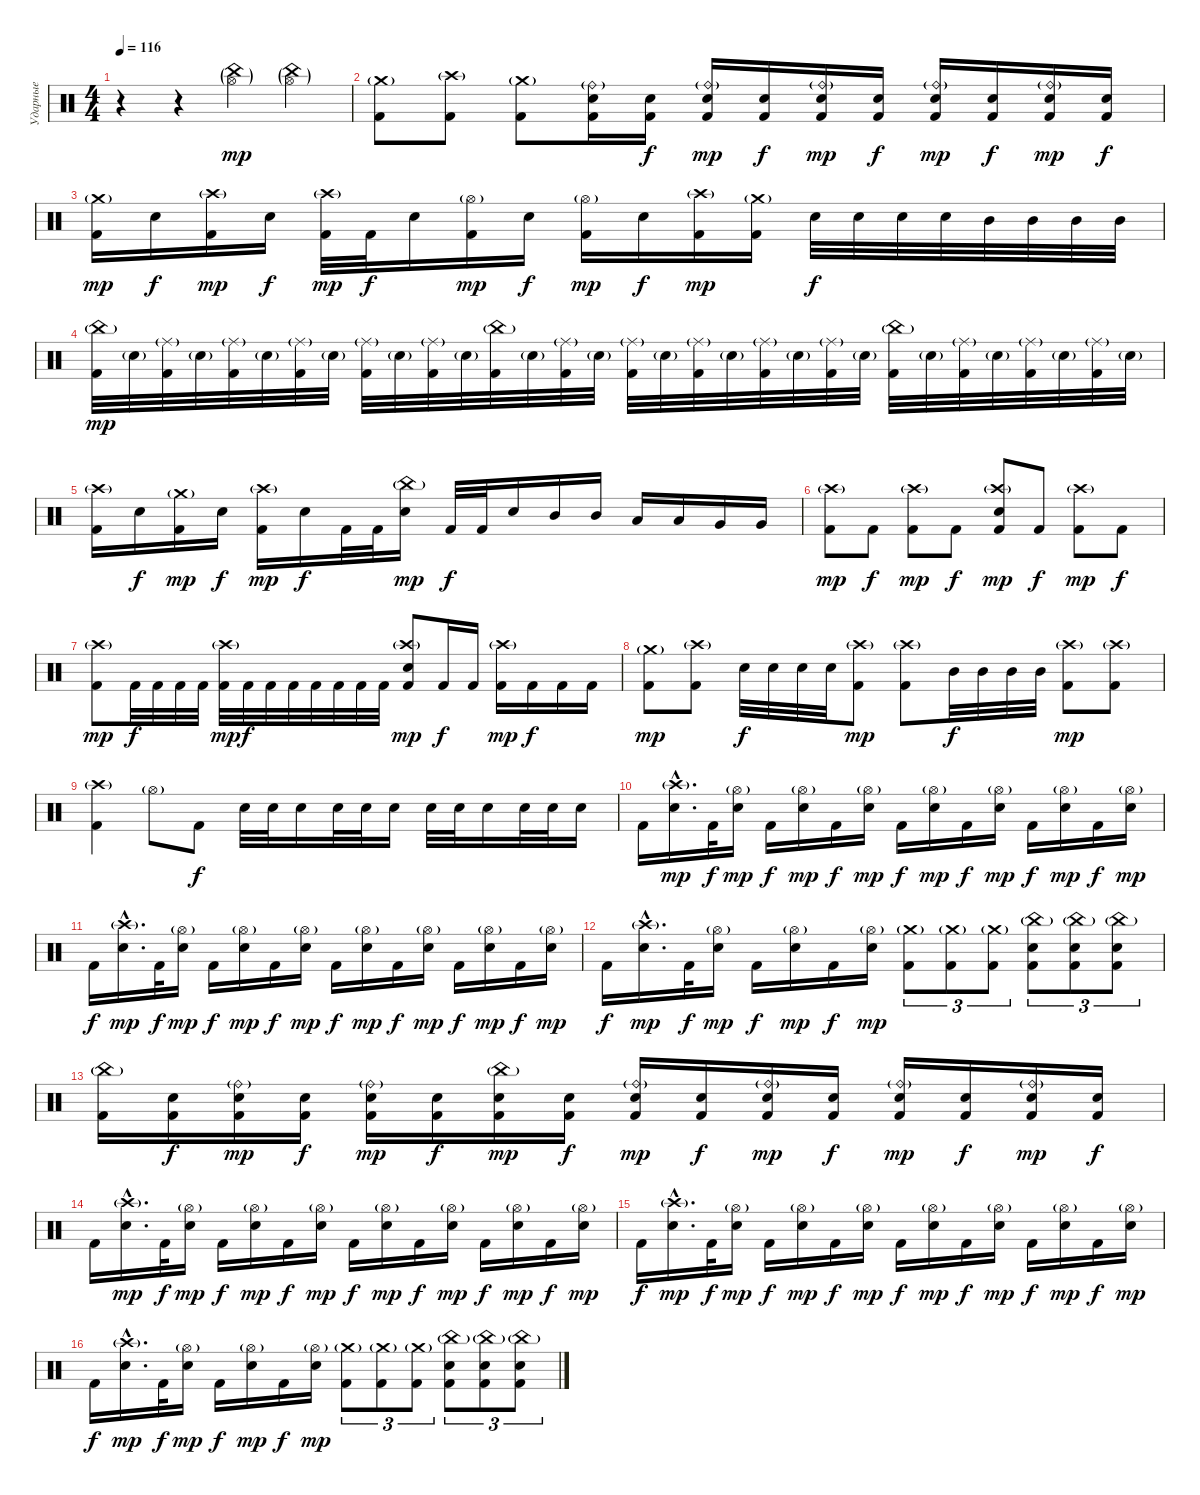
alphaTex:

\track ("Ударные" "Ударные") {instrument percussion}
\staff {score}
\articulation defaults
\ts (4 4)
\tempo 116
\clef neutral
\ks c
r.4{dy mp} r.4 ("China (hit)"{g} "Hi-Hat (open)"{g}).4 ("China (hit)"{g} "Hi-Hat (open)"{g}).4 |
("Crash medium (hit)"{g} "Kick (hit) 2").8 ("Crash high (hit)"{g} "Kick (hit) 2").8 ("Crash medium (hit)"{g} "Kick (hit) 2").8 ("Ride (bell)"{g} "Electric Snare (hit)" "Kick (hit) 2").16 ("Electric Snare (hit)" "Kick (hit) 2").16{dy f} ("Ride (bell)"{g} "Electric Snare (hit)" "Kick (hit) 2").16{dy mp} ("Electric Snare (hit)" "Kick (hit) 2").16{dy f} ("Ride (bell)"{g} "Electric Snare (hit)" "Kick (hit) 2").16{dy mp} ("Electric Snare (hit)" "Kick (hit) 2").16{dy f} ("Ride (bell)"{g} "Electric Snare (hit)" "Kick (hit) 2").16{dy mp} ("Electric Snare (hit)" "Kick (hit) 2").16{dy f} ("Ride (bell)"{g} "Electric Snare (hit)" "Kick (hit) 2").16{dy mp} ("Electric Snare (hit)" "Kick (hit) 2").16{dy f} |
("Crash medium (hit)"{g} "Kick (hit) 2").16{dy mp} "Electric Snare (hit)".16{dy f} ("Crash high (hit)"{g} "Kick (hit) 2").16{dy mp} "Electric Snare (hit)".16{dy f} ("Crash high (hit)"{g} "Kick (hit) 2").32{dy mp} "Kick (hit) 2".32{dy f} "Electric Snare (hit)".16 ("Hi-Hat (open)"{g} "Kick (hit) 2").16{dy mp} "Electric Snare (hit)".16{dy f} ("Hi-Hat (open)"{g} "Kick (hit) 2").16{dy mp} "Electric Snare (hit)".16{dy f} ("Crash high (hit)"{g} "Kick (hit) 2").16{dy mp} ("Crash medium (hit)"{g} "Kick (hit) 2").16 "Electric Snare (hit)".32{dy f} "Electric Snare (hit)".32 "Electric Snare (hit)".32 "Electric Snare (hit)".32 "Mid Tom (hit)".32 "Mid Tom (hit)".32 "Mid Tom (hit)".32 "Mid Tom (hit)".32 |
("China (hit)"{g} "Kick (hit) 2").32{dy mp} "Electric Snare (hit)"{g}.32 ("Ride (middle)"{g} "Kick (hit) 2").32 "Electric Snare (hit)"{g}.32 ("Ride (middle)"{g} "Kick (hit) 2").32 "Electric Snare (hit)"{g}.32 ("Ride (middle)"{g} "Kick (hit) 2").32 "Electric Snare (hit)"{g}.32 ("Ride (middle)"{g} "Kick (hit) 2").32 "Electric Snare (hit)"{g}.32 ("Ride (middle)"{g} "Kick (hit) 2").32 "Electric Snare (hit)"{g}.32 ("China (hit)"{g} "Kick (hit) 2").32 "Electric Snare (hit)"{g}.32 ("Ride (middle)"{g} "Kick (hit) 2").32 "Electric Snare (hit)"{g}.32 ("Ride (middle)"{g} "Kick (hit) 2").32 "Electric Snare (hit)"{g}.32 ("Ride (middle)"{g} "Kick (hit) 2").32 "Electric Snare (hit)"{g}.32 ("Ride (middle)"{g} "Kick (hit) 2").32 "Electric Snare (hit)"{g}.32 ("Ride (middle)"{g} "Kick (hit) 2").32 "Electric Snare (hit)"{g}.32 ("China (hit)"{g} "Kick (hit) 2").32 "Electric Snare (hit)"{g}.32 ("Ride (middle)"{g} "Kick (hit) 2").32 "Electric Snare (hit)"{g}.32 ("Ride (middle)"{g} "Kick (hit) 2").32 "Electric Snare (hit)"{g}.32 ("Ride (middle)"{g} "Kick (hit) 2").32 "Electric Snare (hit)"{g}.32 |
("Crash high (hit)"{g} "Kick (hit) 2").16 "Electric Snare (hit)".16{dy f} ("Crash medium (hit)"{g} "Kick (hit) 2").16{dy mp} "Electric Snare (hit)".16{dy f} ("Crash high (hit)"{g} "Kick (hit) 2").16{dy mp} "Electric Snare (hit)".16{dy f} "Kick (hit) 2".32 "Kick (hit) 2".32 ("China (hit)"{g} "Electric Snare (hit)").16{dy mp} "Kick (hit) 2".32{dy f} "Kick (hit) 2".32 "Electric Snare (hit)".16 "Mid Tom (hit)".16 "Mid Tom (hit)".16 "Low Tom (hit)".16 "Low Tom (hit)".16 "Very Low Tom (hit)".16 "Very Low Tom (hit)".16 |
("Crash high (hit)"{g} "Kick (hit) 2").8{dy mp} "Kick (hit) 2".8{dy f} ("Crash high (hit)"{g} "Kick (hit) 2").8{dy mp} "Kick (hit) 2".8{dy f} ("Crash high (hit)"{g} "Electric Snare (hit)" "Kick (hit) 2").8{dy mp} "Kick (hit) 2".8{dy f} ("Crash high (hit)"{g} "Kick (hit) 2").8{dy mp} "Kick (hit) 2".8{dy f} |
("Crash high (hit)"{g} "Kick (hit) 2").8{dy mp} "Kick (hit) 2".32{dy f} "Kick (hit) 2".32 "Kick (hit) 2".32 "Kick (hit) 2".32 ("Crash high (hit)"{g} "Kick (hit) 2").32{dy mp} "Kick (hit) 2".32{dy f} "Kick (hit) 2".32 "Kick (hit) 2".32 "Kick (hit) 2".32 "Kick (hit) 2".32 "Kick (hit) 2".32 "Kick (hit) 2".32 ("Crash high (hit)"{g} "Electric Snare (hit)" "Kick (hit) 2").8{dy mp} "Kick (hit) 2".16{dy f} "Kick (hit) 2".16 ("Crash high (hit)"{g} "Kick (hit) 2").16{dy mp} "Kick (hit) 2".16{dy f} "Kick (hit) 2".16 "Kick (hit) 2".16 |
("Crash medium (hit)"{g} "Kick (hit) 2").8{dy mp} ("Crash high (hit)"{g} "Kick (hit) 2").8 "Electric Snare (hit)".32{dy f} "Electric Snare (hit)".32 "Electric Snare (hit)".32 "Electric Snare (hit)".32 ("Crash high (hit)"{g} "Kick (hit) 2").8{dy mp} ("Crash high (hit)"{g} "Kick (hit) 2").8 "Mid Tom (hit)".32{dy f} "Mid Tom (hit)".32 "Mid Tom (hit)".32 "Mid Tom (hit)".32 ("Crash high (hit)"{g} "Kick (hit) 2").8{dy mp} ("Crash high (hit)"{g} "Kick (hit) 2").8 |
("Crash high (hit)"{g} "Kick (hit) 2").4 "Hi-Hat (open)"{g}.8 "Kick (hit) 2".8{dy f} "Electric Snare (hit)".32 "Electric Snare (hit)".32 "Electric Snare (hit)".16 "Electric Snare (hit)".32 "Electric Snare (hit)".32 "Electric Snare (hit)".16 "Electric Snare (hit)".32 "Electric Snare (hit)".32 "Electric Snare (hit)".16 "Electric Snare (hit)".32 "Electric Snare (hit)".32 "Electric Snare (hit)".16 |
"Kick (hit) 2".16 ("Crash high (hit)"{g hac} "Electric Snare (hit)"{hac}).16{d dy mp} "Kick (hit) 2".32{dy f} ("Hi-Hat (open)"{g} "Electric Snare (hit)").16{dy mp} "Kick (hit) 2".16{dy f} ("Hi-Hat (open)"{g} "Electric Snare (hit)").16{dy mp} "Kick (hit) 2".16{dy f} ("Hi-Hat (open)"{g} "Electric Snare (hit)").16{dy mp} "Kick (hit) 2".16{dy f} ("Hi-Hat (open)"{g} "Electric Snare (hit)").16{dy mp} "Kick (hit) 2".16{dy f} ("Hi-Hat (open)"{g} "Electric Snare (hit)").16{dy mp} "Kick (hit) 2".16{dy f} ("Hi-Hat (open)"{g} "Electric Snare (hit)").16{dy mp} "Kick (hit) 2".16{dy f} ("Hi-Hat (open)"{g} "Electric Snare (hit)").16{dy mp} |
"Kick (hit) 2".16{dy f} ("Crash high (hit)"{g hac} "Electric Snare (hit)"{hac}).16{d dy mp} "Kick (hit) 2".32{dy f} ("Hi-Hat (open)"{g} "Electric Snare (hit)").16{dy mp} "Kick (hit) 2".16{dy f} ("Hi-Hat (open)"{g} "Electric Snare (hit)").16{dy mp} "Kick (hit) 2".16{dy f} ("Hi-Hat (open)"{g} "Electric Snare (hit)").16{dy mp} "Kick (hit) 2".16{dy f} ("Hi-Hat (open)"{g} "Electric Snare (hit)").16{dy mp} "Kick (hit) 2".16{dy f} ("Hi-Hat (open)"{g} "Electric Snare (hit)").16{dy mp} "Kick (hit) 2".16{dy f} ("Hi-Hat (open)"{g} "Electric Snare (hit)").16{dy mp} "Kick (hit) 2".16{dy f} ("Hi-Hat (open)"{g} "Electric Snare (hit)").16{dy mp} |
"Kick (hit) 2".16{dy f} ("Crash high (hit)"{g hac} "Electric Snare (hit)"{hac}).16{d dy mp} "Kick (hit) 2".32{dy f} ("Hi-Hat (open)"{g} "Electric Snare (hit)").16{dy mp} "Kick (hit) 2".16{dy f} ("Hi-Hat (open)"{g} "Electric Snare (hit)").16{dy mp} "Kick (hit) 2".16{dy f} ("Hi-Hat (open)"{g} "Electric Snare (hit)").16{dy mp} ("Crash medium (hit)"{g} "Kick (hit) 2").8{tu (3 2)} ("Crash medium (hit)"{g} "Kick (hit) 2").8{tu (3 2)} ("Crash medium (hit)"{g} "Kick (hit) 2").8{tu (3 2)} ("China (hit)"{g} "Electric Snare (hit)" "Kick (hit) 2").8{tu (3 2)} ("China (hit)"{g} "Electric Snare (hit)" "Kick (hit) 2").8{tu (3 2)} ("China (hit)"{g} "Electric Snare (hit)" "Kick (hit) 2").8{tu (3 2)} |
("China (hit)"{g} "Kick (hit) 2").16 ("Electric Snare (hit)" "Kick (hit) 2").16{dy f} ("Ride (bell)"{g} "Electric Snare (hit)" "Kick (hit) 2").16{dy mp} ("Electric Snare (hit)" "Kick (hit) 2").16{dy f} ("Ride (bell)"{g} "Electric Snare (hit)" "Kick (hit) 2").16{dy mp} ("Electric Snare (hit)" "Kick (hit) 2").16{dy f} ("China (hit)"{g} "Electric Snare (hit)" "Kick (hit) 2").16{dy mp} ("Electric Snare (hit)" "Kick (hit) 2").16{dy f} ("Ride (bell)"{g} "Electric Snare (hit)" "Kick (hit) 2").16{dy mp} ("Electric Snare (hit)" "Kick (hit) 2").16{dy f} ("Ride (bell)"{g} "Electric Snare (hit)" "Kick (hit) 2").16{dy mp} ("Electric Snare (hit)" "Kick (hit) 2").16{dy f} ("Ride (bell)"{g} "Electric Snare (hit)" "Kick (hit) 2").16{dy mp} ("Electric Snare (hit)" "Kick (hit) 2").16{dy f} ("Ride (bell)"{g} "Electric Snare (hit)" "Kick (hit) 2").16{dy mp} ("Electric Snare (hit)" "Kick (hit) 2").16{dy f} |
"Kick (hit) 2".16 ("Crash high (hit)"{g hac} "Electric Snare (hit)"{hac}).16{d dy mp} "Kick (hit) 2".32{dy f} ("Hi-Hat (open)"{g} "Electric Snare (hit)").16{dy mp} "Kick (hit) 2".16{dy f} ("Hi-Hat (open)"{g} "Electric Snare (hit)").16{dy mp} "Kick (hit) 2".16{dy f} ("Hi-Hat (open)"{g} "Electric Snare (hit)").16{dy mp} "Kick (hit) 2".16{dy f} ("Hi-Hat (open)"{g} "Electric Snare (hit)").16{dy mp} "Kick (hit) 2".16{dy f} ("Hi-Hat (open)"{g} "Electric Snare (hit)").16{dy mp} "Kick (hit) 2".16{dy f} ("Hi-Hat (open)"{g} "Electric Snare (hit)").16{dy mp} "Kick (hit) 2".16{dy f} ("Hi-Hat (open)"{g} "Electric Snare (hit)").16{dy mp} |
"Kick (hit) 2".16{dy f} ("Crash high (hit)"{g hac} "Electric Snare (hit)"{hac}).16{d dy mp} "Kick (hit) 2".32{dy f} ("Hi-Hat (open)"{g} "Electric Snare (hit)").16{dy mp} "Kick (hit) 2".16{dy f} ("Hi-Hat (open)"{g} "Electric Snare (hit)").16{dy mp} "Kick (hit) 2".16{dy f} ("Hi-Hat (open)"{g} "Electric Snare (hit)").16{dy mp} "Kick (hit) 2".16{dy f} ("Hi-Hat (open)"{g} "Electric Snare (hit)").16{dy mp} "Kick (hit) 2".16{dy f} ("Hi-Hat (open)"{g} "Electric Snare (hit)").16{dy mp} "Kick (hit) 2".16{dy f} ("Hi-Hat (open)"{g} "Electric Snare (hit)").16{dy mp} "Kick (hit) 2".16{dy f} ("Hi-Hat (open)"{g} "Electric Snare (hit)").16{dy mp} |
"Kick (hit) 2".16{dy f} ("Crash high (hit)"{g hac} "Electric Snare (hit)"{hac}).16{d dy mp} "Kick (hit) 2".32{dy f} ("Hi-Hat (open)"{g} "Electric Snare (hit)").16{dy mp} "Kick (hit) 2".16{dy f} ("Hi-Hat (open)"{g} "Electric Snare (hit)").16{dy mp} "Kick (hit) 2".16{dy f} ("Hi-Hat (open)"{g} "Electric Snare (hit)").16{dy mp} ("Crash medium (hit)"{g} "Kick (hit) 2").8{tu (3 2)} ("Crash medium (hit)"{g} "Kick (hit) 2").8{tu (3 2)} ("Crash medium (hit)"{g} "Kick (hit) 2").8{tu (3 2)} ("China (hit)"{g} "Electric Snare (hit)" "Kick (hit) 2").8{tu (3 2)} ("China (hit)"{g} "Electric Snare (hit)" "Kick (hit) 2").8{tu (3 2)} ("China (hit)"{g} "Electric Snare (hit)" "Kick (hit) 2").8{tu (3 2)}
